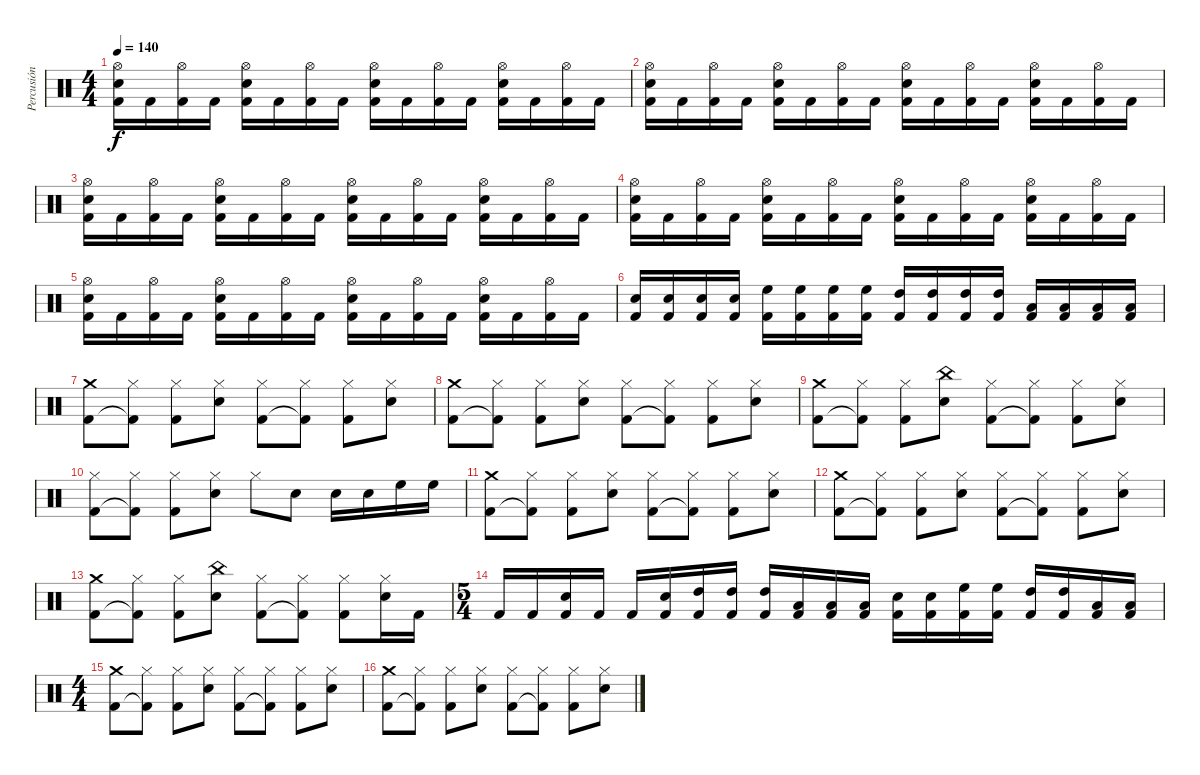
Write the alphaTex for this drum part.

\track ("Percusión" "Percusión") {instrument percussion}
\staff {score}
\articulation defaults
\ts (4 4)
\tempo 140
\clef neutral
\ks c
("Kick (hit) 2" "Electric Snare (hit)" "Hi-Hat (open)").16{dy f} "Kick (hit) 2".16 ("Kick (hit) 2" "Hi-Hat (open)").16 "Kick (hit) 2".16 ("Kick (hit) 2" "Electric Snare (hit)" "Hi-Hat (open)").16 "Kick (hit) 2".16 ("Kick (hit) 2" "Hi-Hat (open)").16 "Kick (hit) 2".16 ("Kick (hit) 2" "Electric Snare (hit)" "Hi-Hat (open)").16 "Kick (hit) 2".16 ("Kick (hit) 2" "Hi-Hat (open)").16 "Kick (hit) 2".16 ("Kick (hit) 2" "Electric Snare (hit)" "Hi-Hat (open)").16 "Kick (hit) 2".16 ("Kick (hit) 2" "Hi-Hat (open)").16 "Kick (hit) 2".16 |
("Kick (hit) 2" "Electric Snare (hit)" "Hi-Hat (open)").16 "Kick (hit) 2".16 ("Kick (hit) 2" "Hi-Hat (open)").16 "Kick (hit) 2".16 ("Kick (hit) 2" "Electric Snare (hit)" "Hi-Hat (open)").16 "Kick (hit) 2".16 ("Kick (hit) 2" "Hi-Hat (open)").16 "Kick (hit) 2".16 ("Kick (hit) 2" "Electric Snare (hit)" "Hi-Hat (open)").16 "Kick (hit) 2".16 ("Kick (hit) 2" "Hi-Hat (open)").16 "Kick (hit) 2".16 ("Kick (hit) 2" "Electric Snare (hit)" "Hi-Hat (open)").16 "Kick (hit) 2".16 ("Kick (hit) 2" "Hi-Hat (open)").16 "Kick (hit) 2".16 |
("Kick (hit) 2" "Electric Snare (hit)" "Hi-Hat (open)").16 "Kick (hit) 2".16 ("Kick (hit) 2" "Hi-Hat (open)").16 "Kick (hit) 2".16 ("Kick (hit) 2" "Electric Snare (hit)" "Hi-Hat (open)").16 "Kick (hit) 2".16 ("Kick (hit) 2" "Hi-Hat (open)").16 "Kick (hit) 2".16 ("Kick (hit) 2" "Electric Snare (hit)" "Hi-Hat (open)").16 "Kick (hit) 2".16 ("Kick (hit) 2" "Hi-Hat (open)").16 "Kick (hit) 2".16 ("Kick (hit) 2" "Electric Snare (hit)" "Hi-Hat (open)").16 "Kick (hit) 2".16 ("Kick (hit) 2" "Hi-Hat (open)").16 "Kick (hit) 2".16 |
("Kick (hit) 2" "Electric Snare (hit)" "Hi-Hat (open)").16 "Kick (hit) 2".16 ("Kick (hit) 2" "Hi-Hat (open)").16 "Kick (hit) 2".16 ("Kick (hit) 2" "Electric Snare (hit)" "Hi-Hat (open)").16 "Kick (hit) 2".16 ("Kick (hit) 2" "Hi-Hat (open)").16 "Kick (hit) 2".16 ("Kick (hit) 2" "Electric Snare (hit)" "Hi-Hat (open)").16 "Kick (hit) 2".16 ("Kick (hit) 2" "Hi-Hat (open)").16 "Kick (hit) 2".16 ("Kick (hit) 2" "Electric Snare (hit)" "Hi-Hat (open)").16 "Kick (hit) 2".16 ("Kick (hit) 2" "Hi-Hat (open)").16 "Kick (hit) 2".16 |
("Kick (hit) 2" "Electric Snare (hit)" "Hi-Hat (open)").16 "Kick (hit) 2".16 ("Kick (hit) 2" "Hi-Hat (open)").16 "Kick (hit) 2".16 ("Kick (hit) 2" "Electric Snare (hit)" "Hi-Hat (open)").16 "Kick (hit) 2".16 ("Kick (hit) 2" "Hi-Hat (open)").16 "Kick (hit) 2".16 ("Kick (hit) 2" "Electric Snare (hit)" "Hi-Hat (open)").16 "Kick (hit) 2".16 ("Kick (hit) 2" "Hi-Hat (open)").16 "Kick (hit) 2".16 ("Kick (hit) 2" "Electric Snare (hit)" "Hi-Hat (open)").16 "Kick (hit) 2".16 ("Kick (hit) 2" "Hi-Hat (open)").16 "Kick (hit) 2".16 |
("Kick (hit) 2" "Electric Snare (hit)").16 ("Kick (hit) 2" "Electric Snare (hit)").16 ("Kick (hit) 2" "Electric Snare (hit)").16 ("Kick (hit) 2" "Electric Snare (hit)").16 ("Kick (hit) 2" "High Floor Tom (hit)").16 ("Kick (hit) 2" "High Floor Tom (hit)").16 ("Kick (hit) 2" "High Floor Tom (hit)").16 ("Kick (hit) 2" "High Floor Tom (hit)").16 ("Kick (hit) 2" "High Tom (hit)").16 ("Kick (hit) 2" "High Tom (hit)").16 ("Kick (hit) 2" "High Tom (hit)").16 ("Kick (hit) 2" "High Tom (hit)").16 ("Kick (hit) 2" "Low Tom (hit)").16 ("Kick (hit) 2" "Low Tom (hit)").16 ("Kick (hit) 2" "Low Tom (hit)").16 ("Kick (hit) 2" "Low Tom (hit)").16 |
("Kick (hit) 2" "Crash medium (hit)").8 ("Kick (hit) 2"{t} "Hi-Hat (closed)").8 ("Kick (hit) 2" "Hi-Hat (closed)").8 ("Electric Snare (hit)" "Hi-Hat (closed)").8 ("Kick (hit) 2" "Hi-Hat (closed)").8 ("Kick (hit) 2"{t} "Hi-Hat (closed)").8 ("Kick (hit) 2" "Hi-Hat (closed)").8 ("Electric Snare (hit)" "Hi-Hat (closed)").8 |
("Kick (hit) 2" "Crash medium (hit)").8 ("Kick (hit) 2"{t} "Hi-Hat (closed)").8 ("Kick (hit) 2" "Hi-Hat (closed)").8 ("Electric Snare (hit)" "Hi-Hat (closed)").8 ("Kick (hit) 2" "Hi-Hat (closed)").8 ("Kick (hit) 2"{t} "Hi-Hat (closed)").8 ("Kick (hit) 2" "Hi-Hat (closed)").8 ("Electric Snare (hit)" "Hi-Hat (closed)").8 |
("Kick (hit) 2" "Crash medium (hit)").8 ("Kick (hit) 2"{t} "Hi-Hat (closed)").8 ("Kick (hit) 2" "Hi-Hat (closed)").8 ("Electric Snare (hit)" "China (hit)").8 ("Kick (hit) 2" "Hi-Hat (closed)").8 ("Kick (hit) 2"{t} "Hi-Hat (closed)").8 ("Kick (hit) 2" "Hi-Hat (closed)").8 ("Electric Snare (hit)" "Hi-Hat (closed)").8 |
("Kick (hit) 2" "Hi-Hat (closed)").8 ("Kick (hit) 2"{t} "Hi-Hat (closed)").8 ("Kick (hit) 2" "Hi-Hat (closed)").8 ("Electric Snare (hit)" "Hi-Hat (closed)").8 "Hi-Hat (closed)".8 "Electric Snare (hit)".8 "Electric Snare (hit)".16 "Electric Snare (hit)".16 "High Floor Tom (hit)".16 "High Floor Tom (hit)".16 |
("Kick (hit) 2" "Crash medium (hit)").8 ("Kick (hit) 2"{t} "Hi-Hat (closed)").8 ("Kick (hit) 2" "Hi-Hat (closed)").8 ("Electric Snare (hit)" "Hi-Hat (closed)").8 ("Kick (hit) 2" "Hi-Hat (closed)").8 ("Kick (hit) 2"{t} "Hi-Hat (closed)").8 ("Kick (hit) 2" "Hi-Hat (closed)").8 ("Electric Snare (hit)" "Hi-Hat (closed)").8 |
("Kick (hit) 2" "Crash medium (hit)").8 ("Kick (hit) 2"{t} "Hi-Hat (closed)").8 ("Kick (hit) 2" "Hi-Hat (closed)").8 ("Electric Snare (hit)" "Hi-Hat (closed)").8 ("Kick (hit) 2" "Hi-Hat (closed)").8 ("Kick (hit) 2"{t} "Hi-Hat (closed)").8 ("Kick (hit) 2" "Hi-Hat (closed)").8 ("Electric Snare (hit)" "Hi-Hat (closed)").8 |
("Kick (hit) 2" "Crash medium (hit)").8 ("Kick (hit) 2"{t} "Hi-Hat (closed)").8 ("Kick (hit) 2" "Hi-Hat (closed)").8 ("Electric Snare (hit)" "China (hit)").8 ("Kick (hit) 2" "Hi-Hat (closed)").8 ("Kick (hit) 2"{t} "Hi-Hat (closed)").8 ("Kick (hit) 2" "Hi-Hat (closed)").8 ("Electric Snare (hit)" "Hi-Hat (closed)").16 "Kick (hit) 2".16 |
\ts (5 4)
"Kick (hit) 2".16 "Kick (hit) 2".16 ("Kick (hit) 2" "Electric Snare (hit)").16 "Kick (hit) 2".16 "Kick (hit) 2".16 ("Kick (hit) 2" "Electric Snare (hit)").16 ("Kick (hit) 2" "High Tom (hit)").16 ("Kick (hit) 2" "High Tom (hit)").16 ("Kick (hit) 2" "High Tom (hit)").16 ("Kick (hit) 2" "Low Tom (hit)").16 ("Kick (hit) 2" "Low Tom (hit)").16 ("Kick (hit) 2" "Low Tom (hit)").16 ("Kick (hit) 2" "Electric Snare (hit)").16 ("Kick (hit) 2" "Electric Snare (hit)").16 ("Kick (hit) 2" "High Floor Tom (hit)").16 ("Kick (hit) 2" "High Floor Tom (hit)").16 ("Kick (hit) 2" "High Tom (hit)").16 ("Kick (hit) 2" "High Tom (hit)").16 ("Kick (hit) 2" "Low Tom (hit)").16 ("Kick (hit) 2" "Low Tom (hit)").16 |
\ts (4 4)
("Kick (hit) 2" "Crash medium (hit)").8 ("Kick (hit) 2"{t} "Hi-Hat (closed)").8 ("Kick (hit) 2" "Hi-Hat (closed)").8 ("Electric Snare (hit)" "Hi-Hat (closed)").8 ("Kick (hit) 2" "Hi-Hat (closed)").8 ("Kick (hit) 2"{t} "Hi-Hat (closed)").8 ("Kick (hit) 2" "Hi-Hat (closed)").8 ("Electric Snare (hit)" "Hi-Hat (closed)").8 |
("Kick (hit) 2" "Crash medium (hit)").8 ("Kick (hit) 2"{t} "Hi-Hat (closed)").8 ("Kick (hit) 2" "Hi-Hat (closed)").8 ("Electric Snare (hit)" "Hi-Hat (closed)").8 ("Kick (hit) 2" "Hi-Hat (closed)").8 ("Kick (hit) 2"{t} "Hi-Hat (closed)").8 ("Kick (hit) 2" "Hi-Hat (closed)").8 ("Electric Snare (hit)" "Hi-Hat (closed)").8
